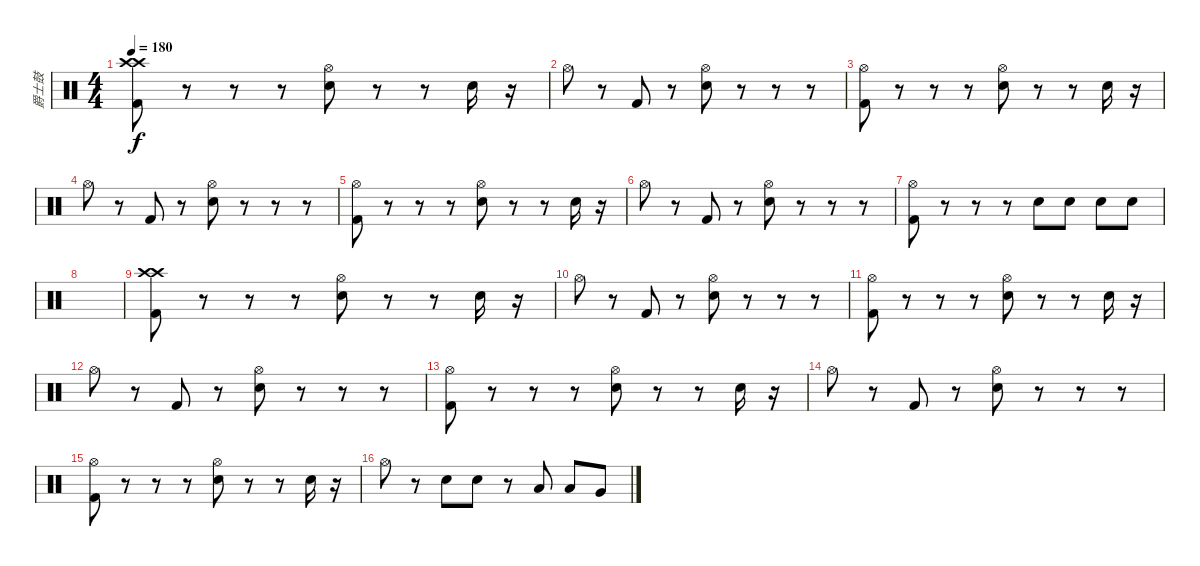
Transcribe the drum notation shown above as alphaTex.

\track ("爵士鼓" "爵士鼓") {instrument percussion}
\staff {score}
\articulation defaults
\ts (4 4)
\tempo 180
\clef neutral
\ks c
("Crash high (hit)" "Kick (hit) 2" "Crash high (hit)").8{dy f} r.8 r.8 r.8 ("Hi-Hat (open)" "Snare (hit) 2").8 r.8 r.8 "Snare (hit) 2".16 r.16 |
"Hi-Hat (open)".8 r.8 "Kick (hit) 2".8 r.8 ("Snare (hit) 2" "Hi-Hat (open)").8 r.8 r.8 r.8 |
("Hi-Hat (open)" "Kick (hit) 2").8 r.8 r.8 r.8 ("Hi-Hat (open)" "Snare (hit) 2").8 r.8 r.8 "Snare (hit) 2".16 r.16 |
"Hi-Hat (open)".8 r.8 "Kick (hit) 2".8 r.8 ("Snare (hit) 2" "Hi-Hat (open)").8 r.8 r.8 r.8 |
("Hi-Hat (open)" "Kick (hit) 2").8 r.8 r.8 r.8 ("Hi-Hat (open)" "Snare (hit) 2").8 r.8 r.8 "Snare (hit) 2".16 r.16 |
"Hi-Hat (open)".8 r.8 "Kick (hit) 2".8 r.8 ("Snare (hit) 2" "Hi-Hat (open)").8 r.8 r.8 r.8 |
("Hi-Hat (open)" "Kick (hit) 2").8 r.8 r.8 r.8 "Snare (hit) 2".8 "Snare (hit) 2".8 "Snare (hit) 2".8 "Snare (hit) 2".8 |
|
("Crash high (hit)" "Kick (hit) 2" "Crash high (hit)").8 r.8 r.8 r.8 ("Hi-Hat (open)" "Snare (hit) 2").8 r.8 r.8 "Snare (hit) 2".16 r.16 |
"Hi-Hat (open)".8 r.8 "Kick (hit) 2".8 r.8 ("Snare (hit) 2" "Hi-Hat (open)").8 r.8 r.8 r.8 |
("Hi-Hat (open)" "Kick (hit) 2").8 r.8 r.8 r.8 ("Hi-Hat (open)" "Snare (hit) 2").8 r.8 r.8 "Snare (hit) 2".16 r.16 |
"Hi-Hat (open)".8 r.8 "Kick (hit) 2".8 r.8 ("Snare (hit) 2" "Hi-Hat (open)").8 r.8 r.8 r.8 |
("Hi-Hat (open)" "Kick (hit) 2").8 r.8 r.8 r.8 ("Hi-Hat (open)" "Snare (hit) 2").8 r.8 r.8 "Snare (hit) 2".16 r.16 |
"Hi-Hat (open)".8 r.8 "Kick (hit) 2".8 r.8 ("Snare (hit) 2" "Hi-Hat (open)").8 r.8 r.8 r.8 |
("Hi-Hat (open)" "Kick (hit) 2").8 r.8 r.8 r.8 ("Hi-Hat (open)" "Snare (hit) 2").8 r.8 r.8 "Snare (hit) 2".16 r.16 |
"Hi-Hat (open)".8 r.8 "Snare (hit) 2".8 "Snare (hit) 2".8 r.8 "Low Floor Tom (hit)".8 "Low Tom (hit)".8 "Very Low Tom (hit)".8
